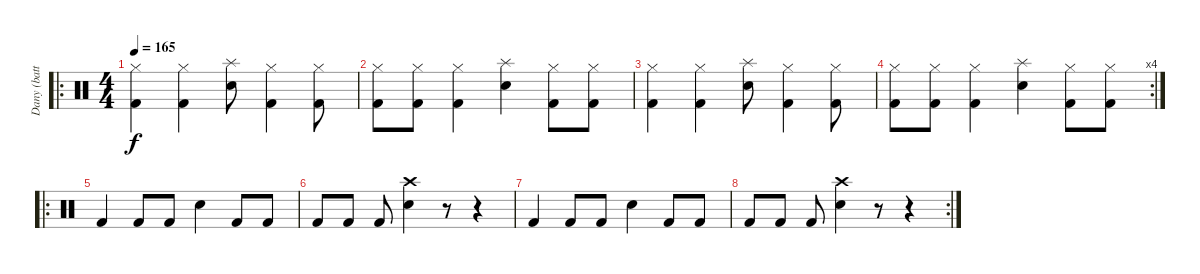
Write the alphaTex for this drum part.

\track ("Dany (batterie)" "Dany (batt") {instrument percussion}
\staff {score}
\articulation defaults
\ro
\ts (4 4)
\tempo 165
\clef neutral
\ks c
("Hi-Hat (closed)" "Kick (hit) 2").4{dy f} ("Hi-Hat (closed)" "Kick (hit) 2").4 ("Splash (hit)" "Snare (hit) 2").8 ("Hi-Hat (closed)" "Kick (hit) 2").4 ("Hi-Hat (closed)" "Kick (hit) 2").8 |
("Hi-Hat (closed)" "Kick (hit) 2").8 ("Hi-Hat (closed)" "Kick (hit) 2").8 ("Hi-Hat (closed)" "Kick (hit) 2").4 ("Splash (hit)" "Snare (hit) 2").4 ("Hi-Hat (closed)" "Kick (hit) 2").8 ("Hi-Hat (closed)" "Kick (hit) 2").8 |
("Hi-Hat (closed)" "Kick (hit) 2").4 ("Hi-Hat (closed)" "Kick (hit) 2").4 ("Splash (hit)" "Snare (hit) 2").8 ("Hi-Hat (closed)" "Kick (hit) 2").4 ("Hi-Hat (closed)" "Kick (hit) 2").8 |
\rc 4
("Hi-Hat (closed)" "Kick (hit) 2").8 ("Hi-Hat (closed)" "Kick (hit) 2").8 ("Hi-Hat (closed)" "Kick (hit) 2").4 ("Splash (hit)" "Snare (hit) 2").4 ("Hi-Hat (closed)" "Kick (hit) 2").8 ("Hi-Hat (closed)" "Kick (hit) 2").8 |
\ro "Kick (hit) 2".4 "Kick (hit) 2".8 "Kick (hit) 2".8 "Snare (hit) 2".4 "Kick (hit) 2".8 "Kick (hit) 2".8
|
"Kick (hit) 2".8 "Kick (hit) 2".8 "Kick (hit) 2".8 ("Crash high (hit)" "Snare (hit) 2").4 r.8 r.4 |
"Kick (hit) 2".4 "Kick (hit) 2".8 "Kick (hit) 2".8 "Snare (hit) 2".4 "Kick (hit) 2".8 "Kick (hit) 2".8 |
\rc 2 "Kick (hit) 2".8 "Kick (hit) 2".8 "Kick (hit) 2".8
("Crash high (hit)" "Snare (hit) 2").4 r.8 r.4
